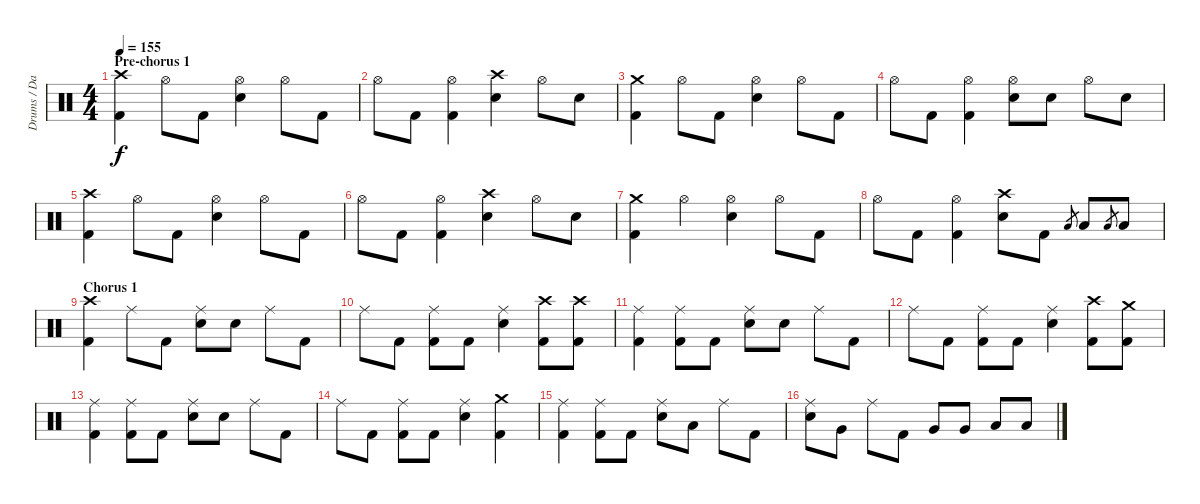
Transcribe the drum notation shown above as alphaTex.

\track ("Drums / David" "Drums / Da") {instrument percussion}
\staff {score}
\articulation defaults
\ts (4 4)
\section ("" "Pre-chorus 1")
\tempo 155
\clef neutral
\ks c
("Crash high (hit)" "Kick (hit) 2").4{dy f} "Hi-Hat (open)".8 "Kick (hit) 2".8 ("Hi-Hat (open)" "Electric Snare (hit)").4 "Hi-Hat (open)".8 "Kick (hit) 2".8 |
"Hi-Hat (open)".8 "Kick (hit) 2".8 ("Hi-Hat (open)" "Kick (hit) 2").4 ("Crash high (hit)" "Electric Snare (hit)").4 "Hi-Hat (open)".8 "Electric Snare (hit)".8 |
("Crash medium (hit)" "Kick (hit) 2").4 "Hi-Hat (open)".8 "Kick (hit) 2".8 ("Hi-Hat (open)" "Electric Snare (hit)").4 "Hi-Hat (open)".8 "Kick (hit) 2".8 |
"Hi-Hat (open)".8 "Kick (hit) 2".8 ("Hi-Hat (open)" "Kick (hit) 2").4 ("Hi-Hat (open)" "Electric Snare (hit)").8 "Electric Snare (hit)".8 "Hi-Hat (open)".8 "Electric Snare (hit)".8 |
("Crash high (hit)" "Kick (hit) 2").4 "Hi-Hat (open)".8 "Kick (hit) 2".8 ("Hi-Hat (open)" "Electric Snare (hit)").4 "Hi-Hat (open)".8 "Kick (hit) 2".8 |
"Hi-Hat (open)".8 "Kick (hit) 2".8 ("Hi-Hat (open)" "Kick (hit) 2").4 ("Crash high (hit)" "Electric Snare (hit)").4 "Hi-Hat (open)".8 "Electric Snare (hit)".8 |
("Crash medium (hit)" "Kick (hit) 2").4 "Hi-Hat (open)".4 ("Hi-Hat (open)" "Electric Snare (hit)").4 "Hi-Hat (open)".8 "Kick (hit) 2".8 |
"Hi-Hat (open)".8 "Kick (hit) 2".8 ("Hi-Hat (open)" "Kick (hit) 2").4 ("Crash high (hit)" "Electric Snare (hit)").8 "Kick (hit) 2".8 "Low Floor Tom (hit)".8{gr} "Low Floor Tom (hit)".8 "Low Floor Tom (hit)".8{gr} "Low Floor Tom (hit)".8 |
\section ("" "Chorus 1")
("Crash high (hit)" "Kick (hit) 2").4 "Ride (middle)".8 "Kick (hit) 2".8 ("Ride (middle)" "Electric Snare (hit)").8 "Electric Snare (hit)".8 "Ride (middle)".8 "Kick (hit) 2".8 |
"Ride (middle)".8 "Kick (hit) 2".8 ("Ride (middle)" "Kick (hit) 2").8 "Kick (hit) 2".8 ("Ride (middle)" "Electric Snare (hit)").4 ("Crash high (hit)" "Kick (hit) 2").8 ("Crash high (hit)" "Kick (hit) 2").8 |
("Ride (middle)" "Kick (hit) 2").4 ("Ride (middle)" "Kick (hit) 2").8 "Kick (hit) 2".8 ("Ride (middle)" "Electric Snare (hit)").8 "Electric Snare (hit)".8 "Ride (middle)".8 "Kick (hit) 2".8 |
"Ride (middle)".8 "Kick (hit) 2".8 ("Ride (middle)" "Kick (hit) 2").8 "Kick (hit) 2".8 ("Ride (middle)" "Electric Snare (hit)").4 ("Crash high (hit)" "Kick (hit) 2").8 ("Crash medium (hit)" "Kick (hit) 2").8 |
("Ride (middle)" "Kick (hit) 2").4 ("Ride (middle)" "Kick (hit) 2").8 "Kick (hit) 2".8 ("Ride (middle)" "Electric Snare (hit)").8 "Electric Snare (hit)".8 "Ride (middle)".8 "Kick (hit) 2".8 |
"Ride (middle)".8 "Kick (hit) 2".8 ("Ride (middle)" "Kick (hit) 2").8 "Kick (hit) 2".8 ("Ride (middle)" "Electric Snare (hit)").4 ("Crash medium (hit)" "Kick (hit) 2").4 |
("Ride (middle)" "Kick (hit) 2").4 ("Ride (middle)" "Kick (hit) 2").8 "Kick (hit) 2".8 ("Ride (middle)" "Electric Snare (hit)").8 "Low Tom (hit)".8 "Ride (middle)".8 "Kick (hit) 2".8 |
("Ride (middle)" "Electric Snare (hit)").8 "Very Low Tom (hit)".8 "Ride (middle)".8 "Kick (hit) 2".8 "Very Low Tom (hit)".8 "Very Low Tom (hit)".8 "Low Floor Tom (hit)".8 "Low Floor Tom (hit)".8
